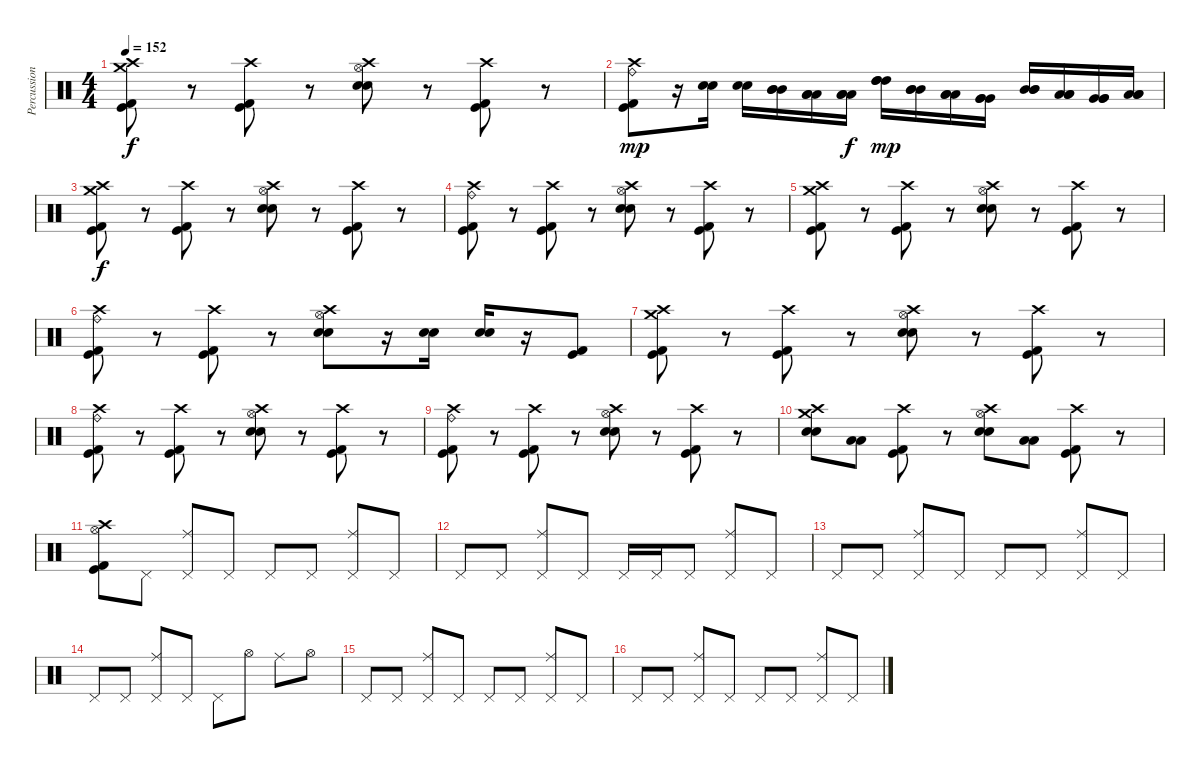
\track ("Percussion" "Percussion") {instrument percussion}
\staff {score}
\articulation defaults
\ts (4 4)
\tempo 152
\clef neutral
\ks c
("Crash high (hit)" "Crash medium (hit)" "Kick (hit) 2" "Kick (hit)").8{dy f} r.8 ("Crash high (hit)" "Kick (hit) 2" "Kick (hit)").8 r.8 ("Crash high (hit)" "Hi-Hat (open)" "Electric Snare (hit)" "Snare (hit) 2").8 r.8 ("Crash high (hit)" "Kick (hit) 2" "Kick (hit)").8 r.8 |
("Crash high (hit)" "Ride (bell)" "Kick (hit) 2" "Kick (hit)").8{dy mp} r.16 ("Electric Snare (hit)" "Snare (hit) 2").16 ("Electric Snare (hit)" "Snare (hit) 2").16 ("Mid Tom (hit)" "Mid Tom (hit)" "Mid Tom (hit)").16 ("Low Tom (hit)" "Low Tom (hit)" "Low Tom (hit)").16 ("Low Tom (hit)" "Low Tom (hit)" "Low Tom (hit)").16{dy f} ("High Tom (hit)" "High Tom (hit)" "High Tom (hit)").16{dy mp} ("Mid Tom (hit)" "Mid Tom (hit)" "Mid Tom (hit)").16 ("Low Tom (hit)" "Low Tom (hit)" "Low Tom (hit)").16 ("Very Low Tom (hit)" "Very Low Tom (hit)" "Very Low Tom (hit)").16 ("Mid Tom (hit)" "Mid Tom (hit)" "Mid Tom (hit)").16 ("Low Tom (hit)" "Low Tom (hit)" "Low Tom (hit)").16 ("Very Low Tom (hit)" "Very Low Tom (hit)" "Very Low Tom (hit)").16 ("Low Floor Tom (hit)" "Low Floor Tom (hit)" "Low Floor Tom (hit)").16 |
("Crash high (hit)" "Crash medium (hit)" "Kick (hit) 2" "Kick (hit)").8{dy f} r.8 ("Crash high (hit)" "Kick (hit) 2" "Kick (hit)").8 r.8 ("Crash high (hit)" "Hi-Hat (open)" "Electric Snare (hit)" "Snare (hit) 2").8 r.8 ("Crash high (hit)" "Kick (hit) 2" "Kick (hit)").8 r.8 |
("Crash high (hit)" "Ride (bell)" "Kick (hit) 2" "Kick (hit)").8 r.8 ("Crash high (hit)" "Kick (hit) 2" "Kick (hit)").8 r.8 ("Crash high (hit)" "Hi-Hat (open)" "Electric Snare (hit)" "Snare (hit) 2").8 r.8 ("Crash high (hit)" "Kick (hit) 2" "Kick (hit)").8 r.8 |
("Crash high (hit)" "Crash medium (hit)" "Kick (hit) 2" "Kick (hit)").8 r.8 ("Crash high (hit)" "Kick (hit) 2" "Kick (hit)").8 r.8 ("Crash high (hit)" "Hi-Hat (open)" "Electric Snare (hit)" "Snare (hit) 2").8 r.8 ("Crash high (hit)" "Kick (hit) 2" "Kick (hit)").8 r.8 |
("Crash high (hit)" "Ride (bell)" "Kick (hit) 2" "Kick (hit)").8 r.8 ("Crash high (hit)" "Kick (hit) 2" "Kick (hit)").8 r.8 ("Crash high (hit)" "Hi-Hat (open)" "Electric Snare (hit)" "Snare (hit) 2").8 r.16 ("Electric Snare (hit)" "Snare (hit) 2").16 ("Electric Snare (hit)" "Snare (hit) 2").16 r.16 ("Kick (hit) 2" "Kick (hit)").8 |
("Crash high (hit)" "Crash medium (hit)" "Kick (hit) 2" "Kick (hit)").8 r.8 ("Crash high (hit)" "Kick (hit) 2" "Kick (hit)").8 r.8 ("Crash high (hit)" "Hi-Hat (open)" "Electric Snare (hit)" "Snare (hit) 2").8 r.8 ("Crash high (hit)" "Kick (hit) 2" "Kick (hit)").8 r.8 |
("Crash high (hit)" "Ride (bell)" "Kick (hit) 2" "Kick (hit)").8 r.8 ("Crash high (hit)" "Kick (hit) 2" "Kick (hit)").8 r.8 ("Crash high (hit)" "Hi-Hat (open)" "Electric Snare (hit)" "Snare (hit) 2").8 r.8 ("Crash high (hit)" "Kick (hit) 2" "Kick (hit)").8 r.8 |
("Crash high (hit)" "Ride (bell)" "Kick (hit) 2" "Kick (hit)").8 r.8 ("Crash high (hit)" "Kick (hit) 2" "Kick (hit)").8 r.8 ("Crash high (hit)" "Hi-Hat (open)" "Electric Snare (hit)" "Snare (hit) 2").8 r.8 ("Crash high (hit)" "Kick (hit) 2" "Kick (hit)").8 r.8 |
("Crash high (hit)" "Crash medium (hit)" "Snare (hit) 2" "Electric Snare (hit)").8 ("Low Floor Tom (hit)" "Low Floor Tom (hit)").8 ("Crash high (hit)" "Kick (hit)" "Kick (hit) 2").8 r.8 ("Crash high (hit)" "Hi-Hat (open)" "Electric Snare (hit)" "Snare (hit) 2").8 ("Low Floor Tom (hit)" "Low Floor Tom (hit)").8 ("Crash high (hit)" "Kick (hit) 2" "Kick (hit)").8 r.8 |
("Crash high (hit)" "Hi-Hat (open)" "Kick (hit) 2" "Kick (hit)").8 "Pedal Hi-Hat (hit)".8 ("Ride (middle)" "Pedal Hi-Hat (hit)").8 "Pedal Hi-Hat (hit)".8 "Pedal Hi-Hat (hit)".8 "Pedal Hi-Hat (hit)".8 ("Ride (middle)" "Pedal Hi-Hat (hit)").8 "Pedal Hi-Hat (hit)".8 |
"Pedal Hi-Hat (hit)".8 "Pedal Hi-Hat (hit)".8 ("Ride (middle)" "Pedal Hi-Hat (hit)").8 "Pedal Hi-Hat (hit)".8 "Pedal Hi-Hat (hit)".16 "Pedal Hi-Hat (hit)".16 "Pedal Hi-Hat (hit)".8 ("Ride (middle)" "Pedal Hi-Hat (hit)").8 "Pedal Hi-Hat (hit)".8 |
"Pedal Hi-Hat (hit)".8 "Pedal Hi-Hat (hit)".8 ("Ride (middle)" "Pedal Hi-Hat (hit)").8 "Pedal Hi-Hat (hit)".8 "Pedal Hi-Hat (hit)".8 "Pedal Hi-Hat (hit)".8 ("Ride (middle)" "Pedal Hi-Hat (hit)").8 "Pedal Hi-Hat (hit)".8 |
"Pedal Hi-Hat (hit)".8 "Pedal Hi-Hat (hit)".8 ("Ride (middle)" "Pedal Hi-Hat (hit)").8 "Pedal Hi-Hat (hit)".8 "Pedal Hi-Hat (hit)".8 "Hi-Hat (open)".8 "Ride (middle)".8 "Hi-Hat (open)".8 |
"Pedal Hi-Hat (hit)".8 "Pedal Hi-Hat (hit)".8 ("Ride (middle)" "Pedal Hi-Hat (hit)").8 "Pedal Hi-Hat (hit)".8 "Pedal Hi-Hat (hit)".8 "Pedal Hi-Hat (hit)".8 ("Ride (middle)" "Pedal Hi-Hat (hit)").8 "Pedal Hi-Hat (hit)".8 |
"Pedal Hi-Hat (hit)".8 "Pedal Hi-Hat (hit)".8 ("Ride (middle)" "Pedal Hi-Hat (hit)").8 "Pedal Hi-Hat (hit)".8 "Pedal Hi-Hat (hit)".8 "Pedal Hi-Hat (hit)".8 ("Ride (middle)" "Pedal Hi-Hat (hit)").8 "Pedal Hi-Hat (hit)".8
